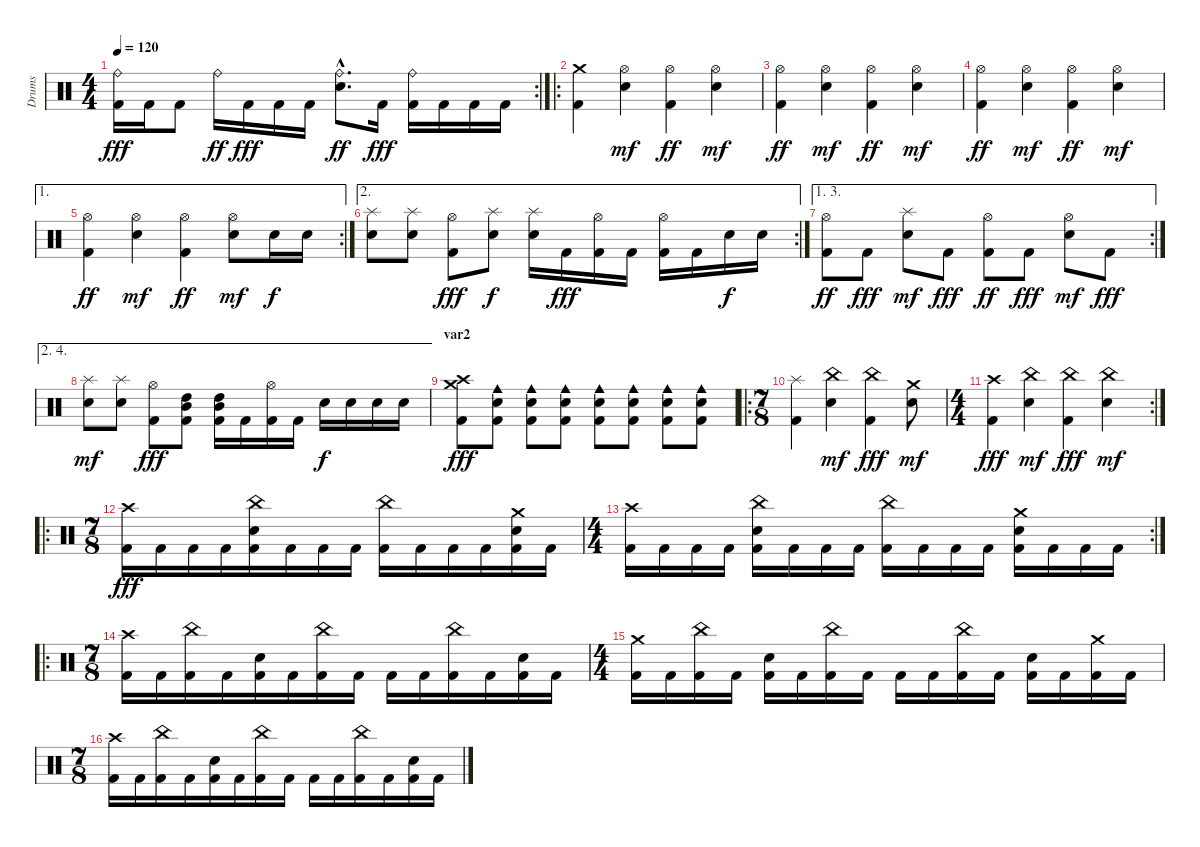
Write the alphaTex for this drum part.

\track ("Drums" "Drums") {instrument percussion}
\staff {score}
\articulation defaults
\rc 2
\ts (4 4)
\tempo 120
\clef neutral
\ks c
("Ride (bell)" "Kick (hit) 2").16{dy fff} "Kick (hit) 2".16 "Kick (hit) 2".8 "Ride (bell)".16{dy ff} "Kick (hit) 2".16{dy fff} "Kick (hit) 2".16 "Kick (hit) 2".16 ("Ride (bell)"{hac} "Electric Snare (hit)"{hac}).8{d dy ff} "Kick (hit) 2".16{dy fff} ("Ride (bell)" "Kick (hit) 2").16 "Kick (hit) 2".16 "Kick (hit) 2".16 "Kick (hit) 2".16 |
\ro
("Crash medium (hit)" "Kick (hit) 2").4 ("Hi-Hat (open)" "Electric Snare (hit)").4{dy mf} ("Hi-Hat (open)" "Kick (hit) 2").4{dy ff} ("Hi-Hat (open)" "Electric Snare (hit)").4{dy mf} |
("Hi-Hat (open)" "Kick (hit) 2").4{dy ff} ("Hi-Hat (open)" "Electric Snare (hit)").4{dy mf} ("Hi-Hat (open)" "Kick (hit) 2").4{dy ff} ("Hi-Hat (open)" "Electric Snare (hit)").4{dy mf} |
("Hi-Hat (open)" "Kick (hit) 2").4{dy ff} ("Hi-Hat (open)" "Electric Snare (hit)").4{dy mf} ("Hi-Hat (open)" "Kick (hit) 2").4{dy ff} ("Hi-Hat (open)" "Electric Snare (hit)").4{dy mf} |
\ae 1
\rc 2
("Hi-Hat (open)" "Kick (hit) 2").4{dy ff} ("Hi-Hat (open)" "Electric Snare (hit)").4{dy mf} ("Hi-Hat (open)" "Kick (hit) 2").4{dy ff} ("Hi-Hat (open)" "Electric Snare (hit)").8{dy mf} "Electric Snare (hit)".16{dy f} "Electric Snare (hit)".16 |
\ae 2
\rc 2
("Splash (hit)" "Electric Snare (hit)").8 ("Splash (hit)" "Electric Snare (hit)").8 ("Hi-Hat (open)" "Kick (hit) 2").8{dy fff} ("Splash (hit)" "Electric Snare (hit)").8{dy f} ("Splash (hit)" "Electric Snare (hit)").16 "Kick (hit) 2".16{dy fff} ("Hi-Hat (open)" "Kick (hit) 2").16 "Kick (hit) 2".16 ("Hi-Hat (open)" "Kick (hit) 2").16 "Kick (hit) 2".16 "Electric Snare (hit)".16{dy f} "Electric Snare (hit)".16 |
\ae (1 3)
\rc 2
("Hi-Hat (open)" "Kick (hit) 2").8{dy ff} "Kick (hit) 2".8{dy fff} ("Splash (hit)" "Electric Snare (hit)").8{dy mf} "Kick (hit) 2".8{dy fff} ("Hi-Hat (open)" "Kick (hit) 2").8{dy ff} "Kick (hit) 2".8{dy fff} ("Hi-Hat (open)" "Electric Snare (hit)").8{dy mf} "Kick (hit) 2".8{dy fff} |
\ae (2 4)
("Splash (hit)" "Electric Snare (hit)").8{dy mf} ("Splash (hit)" "Electric Snare (hit)").8 ("Hi-Hat (open)" "Kick (hit) 2").8{dy fff} ("Mid Tom (hit)" "High Tom (hit)" "Kick (hit) 2").8 ("Mid Tom (hit)" "High Tom (hit)" "Kick (hit) 2").16 "Kick (hit) 2".16 ("Hi-Hat (open)" "Kick (hit) 2").16 "Kick (hit) 2".16 "Electric Snare (hit)".16{dy f} "Electric Snare (hit)".16 "Electric Snare (hit)".16 "Electric Snare (hit)".16 |
\section ("" "var2")
("Crash medium (hit)" "Crash high (hit)" "Kick (hit) 2").8{dy fff} ("Cowbell medium (hit)" "Electric Snare (hit)" "Kick (hit) 2").8 ("Cowbell medium (hit)" "Electric Snare (hit)" "Kick (hit) 2").8 ("Cowbell medium (hit)" "Electric Snare (hit)" "Kick (hit) 2").8 ("Cowbell medium (hit)" "Electric Snare (hit)" "Kick (hit) 2").8 ("Cowbell medium (hit)" "Electric Snare (hit)" "Kick (hit) 2").8 ("Cowbell medium (hit)" "Electric Snare (hit)" "Kick (hit) 2").8 ("Cowbell medium (hit)" "Electric Snare (hit)" "Kick (hit) 2").8 |
\ro
\ts (7 8)
("Splash (hit)" "Kick (hit) 2").4 ("China (hit)" "Electric Snare (hit)").4{dy mf} ("China (hit)" "Kick (hit) 2").4{dy fff} ("Crash medium (hit)" "Electric Snare (hit)").8{dy mf} |
\rc 2
\ts (4 4)
("Crash high (hit)" "Kick (hit) 2").4{dy fff} ("China (hit)" "Electric Snare (hit)").4{dy mf} ("China (hit)" "Kick (hit) 2").4{dy fff} ("China (hit)" "Electric Snare (hit)").4{dy mf} |
\ro
\ts (7 8)
("Crash high (hit)" "Kick (hit) 2").16{dy fff} "Kick (hit) 2".16 "Kick (hit) 2".16 "Kick (hit) 2".16 ("China (hit)" "Electric Snare (hit)" "Kick (hit) 2").16 "Kick (hit) 2".16 "Kick (hit) 2".16 "Kick (hit) 2".16 ("China (hit)" "Kick (hit) 2").16 "Kick (hit) 2".16 "Kick (hit) 2".16 "Kick (hit) 2".16 ("Crash medium (hit)" "Electric Snare (hit)" "Kick (hit) 2").16 "Kick (hit) 2".16 |
\rc 2
\ts (4 4)
("Crash high (hit)" "Kick (hit) 2").16 "Kick (hit) 2".16 "Kick (hit) 2".16 "Kick (hit) 2".16 ("China (hit)" "Electric Snare (hit)" "Kick (hit) 2").16 "Kick (hit) 2".16 "Kick (hit) 2".16 "Kick (hit) 2".16 ("China (hit)" "Kick (hit) 2").16 "Kick (hit) 2".16 "Kick (hit) 2".16 "Kick (hit) 2".16 ("Crash medium (hit)" "Electric Snare (hit)" "Kick (hit) 2").16 "Kick (hit) 2".16 "Kick (hit) 2".16 "Kick (hit) 2".16 |
\ro
\ts (7 8)
("Crash high (hit)" "Kick (hit) 2").16 "Kick (hit) 2".16 ("China (hit)" "Kick (hit) 2").16 "Kick (hit) 2".16 ("Electric Snare (hit)" "Kick (hit) 2").16 "Kick (hit) 2".16 ("China (hit)" "Kick (hit) 2").16 "Kick (hit) 2".16 "Kick (hit) 2".16 "Kick (hit) 2".16 ("China (hit)" "Kick (hit) 2").16 "Kick (hit) 2".16 ("Electric Snare (hit)" "Kick (hit) 2").16 "Kick (hit) 2".16 |
\ts (4 4)
("Crash medium (hit)" "Kick (hit) 2").16 "Kick (hit) 2".16 ("China (hit)" "Kick (hit) 2").16 "Kick (hit) 2".16 ("Electric Snare (hit)" "Kick (hit) 2").16 "Kick (hit) 2".16 ("China (hit)" "Kick (hit) 2").16 "Kick (hit) 2".16 "Kick (hit) 2".16 "Kick (hit) 2".16 ("China (hit)" "Kick (hit) 2").16 "Kick (hit) 2".16 ("Electric Snare (hit)" "Kick (hit) 2").16 "Kick (hit) 2".16 ("Crash medium (hit)" "Kick (hit) 2").16 "Kick (hit) 2".16 |
\ts (7 8)
("Crash high (hit)" "Kick (hit) 2").16 "Kick (hit) 2".16 ("China (hit)" "Kick (hit) 2").16 "Kick (hit) 2".16 ("Electric Snare (hit)" "Kick (hit) 2").16 "Kick (hit) 2".16 ("China (hit)" "Kick (hit) 2").16 "Kick (hit) 2".16 "Kick (hit) 2".16 "Kick (hit) 2".16 ("China (hit)" "Kick (hit) 2").16 "Kick (hit) 2".16 ("Electric Snare (hit)" "Kick (hit) 2").16 "Kick (hit) 2".16
